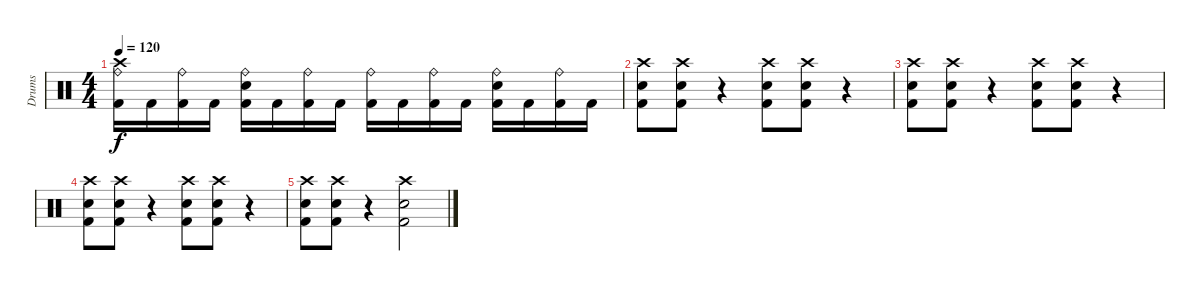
\track ("Drums" "Drums") {instrument percussion}
\staff {score}
\articulation defaults
\ts (4 4)
\tempo 120
\clef neutral
\ks c
("Crash high (hit)" "Ride (bell)" "Kick (hit) 2").16{dy f} "Kick (hit) 2".16 ("Ride (bell)" "Kick (hit) 2").16 "Kick (hit) 2".16 ("Ride (bell)" "Electric Snare (hit)" "Kick (hit) 2").16 "Kick (hit) 2".16 ("Ride (bell)" "Kick (hit) 2").16 "Kick (hit) 2".16 ("Ride (bell)" "Kick (hit) 2").16 "Kick (hit) 2".16 ("Ride (bell)" "Kick (hit) 2").16 "Kick (hit) 2".16 ("Ride (bell)" "Electric Snare (hit)" "Kick (hit) 2").16 "Kick (hit) 2".16 ("Ride (bell)" "Kick (hit) 2").16 "Kick (hit) 2".16 |
("Crash high (hit)" "Electric Snare (hit)" "Kick (hit) 2").8 ("Crash high (hit)" "Electric Snare (hit)" "Kick (hit) 2").8 r.4 ("Crash high (hit)" "Electric Snare (hit)" "Kick (hit) 2").8 ("Crash high (hit)" "Electric Snare (hit)" "Kick (hit) 2").8 r.4 |
("Crash high (hit)" "Electric Snare (hit)" "Kick (hit) 2").8 ("Crash high (hit)" "Electric Snare (hit)" "Kick (hit) 2").8 r.4 ("Crash high (hit)" "Electric Snare (hit)" "Kick (hit) 2").8 ("Crash high (hit)" "Electric Snare (hit)" "Kick (hit) 2").8 r.4 |
("Crash high (hit)" "Electric Snare (hit)" "Kick (hit) 2").8 ("Crash high (hit)" "Electric Snare (hit)" "Kick (hit) 2").8 r.4 ("Crash high (hit)" "Electric Snare (hit)" "Kick (hit) 2").8 ("Crash high (hit)" "Electric Snare (hit)" "Kick (hit) 2").8 r.4 |
("Crash high (hit)" "Electric Snare (hit)" "Kick (hit) 2").8 ("Crash high (hit)" "Electric Snare (hit)" "Kick (hit) 2").8 r.4 ("Crash high (hit)" "Electric Snare (hit)" "Kick (hit) 2").2
